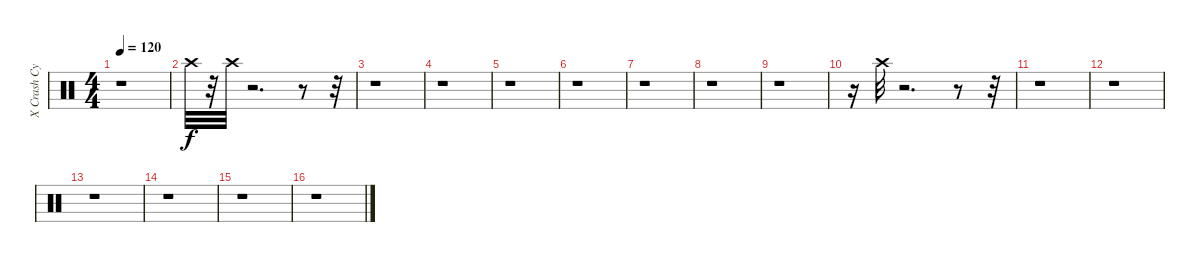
\track ("X Crash Cymbal      " "X Crash Cy") {instrument percussion}
\staff {score}
\articulation defaults
\ts (4 4)
\tempo 120
\clef neutral
\ks c
r.1{dy f} |
"Crash high (hit)".32 r.32 "Crash high (hit)".32 r.2{d} r.8 r.32 |
r.1 |
r.1 |
r.1 |
r.1 |
r.1 |
r.1 |
r.1 |
r.16 "Crash high (hit)".32 r.2{d} r.8 r.32 |
r.1 |
r.1 |
r.1 |
r.1 |
r.1 |
r.1
